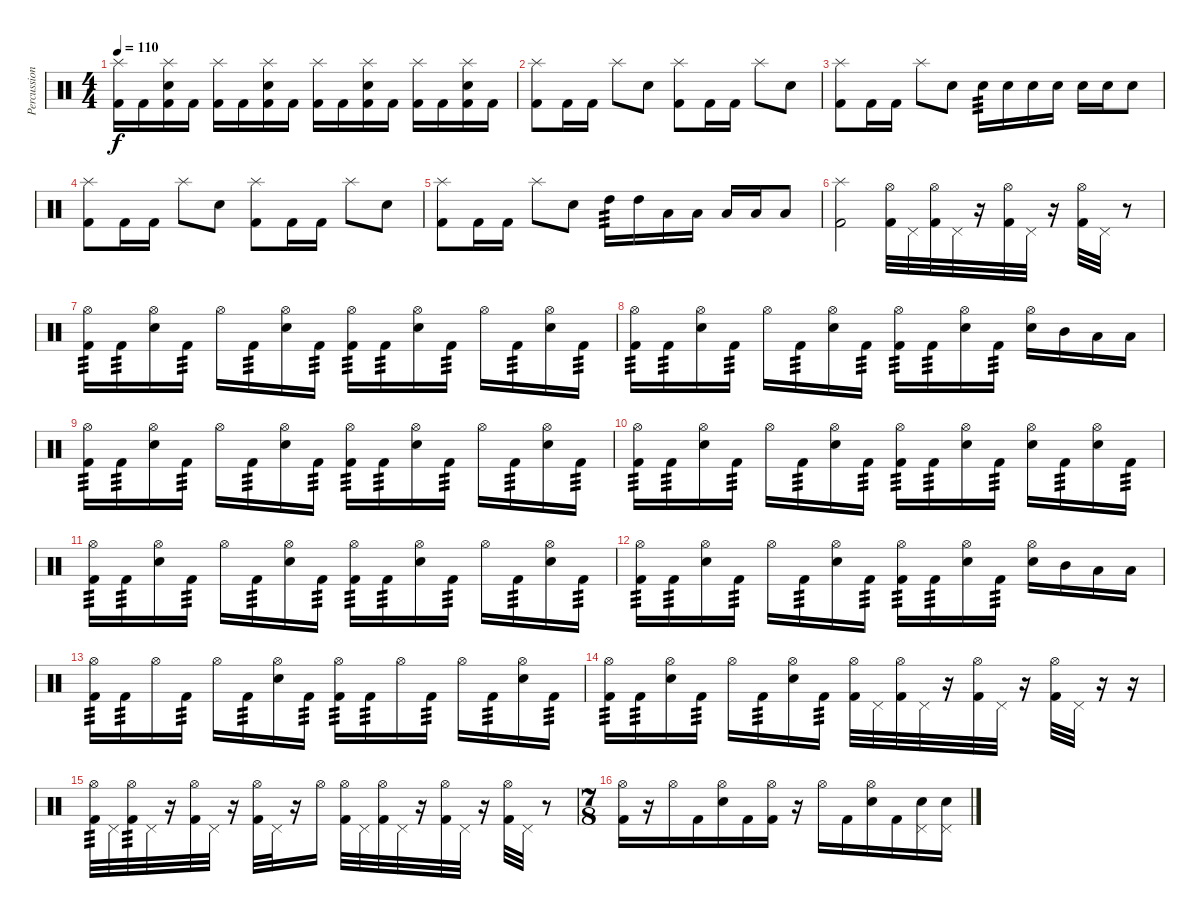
\track ("Percussion" "Percussion") {instrument percussion}
\staff {score}
\articulation defaults
\ts (4 4)
\tempo 110
\clef neutral
\ks c
("Splash (hit)" "Kick (hit) 2").16{dy f} "Kick (hit) 2".16 ("Splash (hit)" "Electric Snare (hit)" "Kick (hit) 2").16 "Kick (hit) 2".16 ("Splash (hit)" "Kick (hit) 2").16 "Kick (hit) 2".16 ("Splash (hit)" "Electric Snare (hit)" "Kick (hit) 2").16 "Kick (hit) 2".16 ("Splash (hit)" "Kick (hit) 2").16 "Kick (hit) 2".16 ("Splash (hit)" "Electric Snare (hit)" "Kick (hit) 2").16 "Kick (hit) 2".16 ("Splash (hit)" "Kick (hit) 2").16 "Kick (hit) 2".16 ("Splash (hit)" "Electric Snare (hit)" "Kick (hit) 2").16 "Kick (hit) 2".16 |
("Splash (hit)" "Kick (hit) 2").8 "Kick (hit) 2".16 "Kick (hit) 2".16 "Splash (hit)".8 "Electric Snare (hit)".8 ("Splash (hit)" "Kick (hit) 2").8 "Kick (hit) 2".16 "Kick (hit) 2".16 "Splash (hit)".8 "Electric Snare (hit)".8 |
("Splash (hit)" "Kick (hit) 2").8 "Kick (hit) 2".16 "Kick (hit) 2".16 "Splash (hit)".8 "Electric Snare (hit)".8 "Electric Snare (hit)".16{tp 3} "Electric Snare (hit)".16 "Electric Snare (hit)".16 "Electric Snare (hit)".16 "Electric Snare (hit)".16 "Electric Snare (hit)".16 "Electric Snare (hit)".8 |
("Splash (hit)" "Kick (hit) 2").8 "Kick (hit) 2".16 "Kick (hit) 2".16 "Splash (hit)".8 "Electric Snare (hit)".8 ("Splash (hit)" "Kick (hit) 2").8 "Kick (hit) 2".16 "Kick (hit) 2".16 "Splash (hit)".8 "Electric Snare (hit)".8 |
("Splash (hit)" "Kick (hit) 2").8 "Kick (hit) 2".16 "Kick (hit) 2".16 "Splash (hit)".8 "Electric Snare (hit)".8 "High Tom (hit)".16{tp 3} "High Tom (hit)".16 "Low Tom (hit)".16 "Low Tom (hit)".16 "Low Floor Tom (hit)".16 "Low Floor Tom (hit)".16 "Low Floor Tom (hit)".8 |
("Splash (hit)" "Kick (hit) 2").2 ("Hi-Hat (open)" "Kick (hit) 2").32 "Pedal Hi-Hat (hit)".32 ("Hi-Hat (open)" "Kick (hit) 2").32 "Pedal Hi-Hat (hit)".32 r.16 ("Hi-Hat (open)" "Kick (hit) 2").32 "Pedal Hi-Hat (hit)".32 r.16 ("Hi-Hat (open)" "Kick (hit) 2").32 "Pedal Hi-Hat (hit)".32 r.8 |
("Hi-Hat (open)" "Kick (hit) 2").16{tp 3} "Kick (hit) 2".16{tp 3} ("Hi-Hat (open)" "Electric Snare (hit)").16 "Kick (hit) 2".16{tp 3} "Hi-Hat (open)".16 "Kick (hit) 2".16{tp 3} ("Hi-Hat (open)" "Electric Snare (hit)").16 "Kick (hit) 2".16{tp 3} ("Hi-Hat (open)" "Kick (hit) 2").16{tp 3} "Kick (hit) 2".16{tp 3} ("Hi-Hat (open)" "Electric Snare (hit)").16 "Kick (hit) 2".16{tp 3} "Hi-Hat (open)".16 "Kick (hit) 2".16{tp 3} ("Hi-Hat (open)" "Electric Snare (hit)").16 "Kick (hit) 2".16{tp 3} |
("Hi-Hat (open)" "Kick (hit) 2").16{tp 3} "Kick (hit) 2".16{tp 3} ("Hi-Hat (open)" "Electric Snare (hit)").16 "Kick (hit) 2".16{tp 3} "Hi-Hat (open)".16 "Kick (hit) 2".16{tp 3} ("Hi-Hat (open)" "Electric Snare (hit)").16 "Kick (hit) 2".16{tp 3} ("Hi-Hat (open)" "Kick (hit) 2").16{tp 3} "Kick (hit) 2".16{tp 3} ("Hi-Hat (open)" "Electric Snare (hit)").16 "Kick (hit) 2".16{tp 3} ("Hi-Hat (open)" "Electric Snare (hit)").16 "Mid Tom (hit)".16 "Low Tom (hit)".16 "Low Floor Tom (hit)".16 |
("Hi-Hat (open)" "Kick (hit) 2").16{tp 3} "Kick (hit) 2".16{tp 3} ("Hi-Hat (open)" "Electric Snare (hit)").16 "Kick (hit) 2".16{tp 3} "Hi-Hat (open)".16 "Kick (hit) 2".16{tp 3} ("Hi-Hat (open)" "Electric Snare (hit)").16 "Kick (hit) 2".16{tp 3} ("Hi-Hat (open)" "Kick (hit) 2").16{tp 3} "Kick (hit) 2".16{tp 3} ("Hi-Hat (open)" "Electric Snare (hit)").16 "Kick (hit) 2".16{tp 3} "Hi-Hat (open)".16 "Kick (hit) 2".16{tp 3} ("Hi-Hat (open)" "Electric Snare (hit)").16 "Kick (hit) 2".16{tp 3} |
("Hi-Hat (open)" "Kick (hit) 2").16{tp 3} "Kick (hit) 2".16{tp 3} ("Hi-Hat (open)" "Electric Snare (hit)").16 "Kick (hit) 2".16{tp 3} "Hi-Hat (open)".16 "Kick (hit) 2".16{tp 3} ("Hi-Hat (open)" "Electric Snare (hit)").16 "Kick (hit) 2".16{tp 3} ("Hi-Hat (open)" "Kick (hit) 2").16{tp 3} "Kick (hit) 2".16{tp 3} ("Hi-Hat (open)" "Electric Snare (hit)").16 "Kick (hit) 2".16{tp 3} ("Hi-Hat (open)" "Electric Snare (hit)").16 "Kick (hit) 2".16{tp 3} ("Hi-Hat (open)" "Electric Snare (hit)").16 "Kick (hit) 2".16{tp 3} |
("Hi-Hat (open)" "Kick (hit) 2").16{tp 3} "Kick (hit) 2".16{tp 3} ("Hi-Hat (open)" "Electric Snare (hit)").16 "Kick (hit) 2".16{tp 3} "Hi-Hat (open)".16 "Kick (hit) 2".16{tp 3} ("Hi-Hat (open)" "Electric Snare (hit)").16 "Kick (hit) 2".16{tp 3} ("Hi-Hat (open)" "Kick (hit) 2").16{tp 3} "Kick (hit) 2".16{tp 3} ("Hi-Hat (open)" "Electric Snare (hit)").16 "Kick (hit) 2".16{tp 3} "Hi-Hat (open)".16 "Kick (hit) 2".16{tp 3} ("Hi-Hat (open)" "Electric Snare (hit)").16 "Kick (hit) 2".16{tp 3} |
("Hi-Hat (open)" "Kick (hit) 2").16{tp 3} "Kick (hit) 2".16{tp 3} ("Hi-Hat (open)" "Electric Snare (hit)").16 "Kick (hit) 2".16{tp 3} "Hi-Hat (open)".16 "Kick (hit) 2".16{tp 3} ("Hi-Hat (open)" "Electric Snare (hit)").16 "Kick (hit) 2".16{tp 3} ("Hi-Hat (open)" "Kick (hit) 2").16{tp 3} "Kick (hit) 2".16{tp 3} ("Hi-Hat (open)" "Electric Snare (hit)").16 "Kick (hit) 2".16{tp 3} ("Hi-Hat (open)" "Electric Snare (hit)").16 "Mid Tom (hit)".16 "Low Tom (hit)".16 "Low Floor Tom (hit)".16 |
("Hi-Hat (open)" "Kick (hit) 2").16{tp 3} "Kick (hit) 2".16{tp 3} "Hi-Hat (open)".16 "Kick (hit) 2".16{tp 3} "Hi-Hat (open)".16 "Kick (hit) 2".16{tp 3} ("Hi-Hat (open)" "Electric Snare (hit)").16 "Kick (hit) 2".16{tp 3} ("Hi-Hat (open)" "Kick (hit) 2").16{tp 3} "Kick (hit) 2".16{tp 3} "Hi-Hat (open)".16 "Kick (hit) 2".16{tp 3} "Hi-Hat (open)".16 "Kick (hit) 2".16{tp 3} ("Hi-Hat (open)" "Electric Snare (hit)").16 "Kick (hit) 2".16{tp 3} |
("Hi-Hat (open)" "Kick (hit) 2").16{tp 3} "Kick (hit) 2".16{tp 3} ("Hi-Hat (open)" "Electric Snare (hit)").16 "Kick (hit) 2".16{tp 3} "Hi-Hat (open)".16 "Kick (hit) 2".16{tp 3} ("Hi-Hat (open)" "Electric Snare (hit)").16 "Kick (hit) 2".16{tp 3} ("Hi-Hat (open)" "Kick (hit) 2").32 "Pedal Hi-Hat (hit)".32 ("Hi-Hat (open)" "Kick (hit) 2").32 "Pedal Hi-Hat (hit)".32 r.16 ("Hi-Hat (open)" "Kick (hit) 2").32 "Pedal Hi-Hat (hit)".32 r.16 ("Hi-Hat (open)" "Kick (hit) 2").32 "Pedal Hi-Hat (hit)".32 r.16 r.16 |
("Hi-Hat (open)" "Kick (hit) 2").32{tp 3} "Pedal Hi-Hat (hit)".32 ("Hi-Hat (open)" "Kick (hit) 2").32{tp 3} "Pedal Hi-Hat (hit)".32 r.16 ("Hi-Hat (open)" "Kick (hit) 2").32 "Pedal Hi-Hat (hit)".32 r.16 ("Hi-Hat (open)" "Kick (hit) 2").32 "Pedal Hi-Hat (hit)".32 r.16 "Hi-Hat (open)".16 ("Hi-Hat (open)" "Kick (hit) 2").32 "Pedal Hi-Hat (hit)".32 ("Hi-Hat (open)" "Kick (hit) 2").32 "Pedal Hi-Hat (hit)".32 r.16 ("Hi-Hat (open)" "Kick (hit) 2").32 "Pedal Hi-Hat (hit)".32 r.16 ("Hi-Hat (open)" "Kick (hit) 2").32 "Pedal Hi-Hat (hit)".32 r.8 |
\ts (7 8)
("Hi-Hat (open)" "Kick (hit) 2").16 r.16 "Hi-Hat (open)".16 "Kick (hit) 2".16 ("Hi-Hat (open)" "Electric Snare (hit)").16 "Kick (hit) 2".16 ("Hi-Hat (open)" "Kick (hit) 2").16 r.16 "Hi-Hat (open)".16 "Kick (hit) 2".16 ("Hi-Hat (open)" "Electric Snare (hit)").16 "Kick (hit) 2".16 ("Pedal Hi-Hat (hit)" "Electric Snare (hit)").16 ("Pedal Hi-Hat (hit)" "Electric Snare (hit)").16
